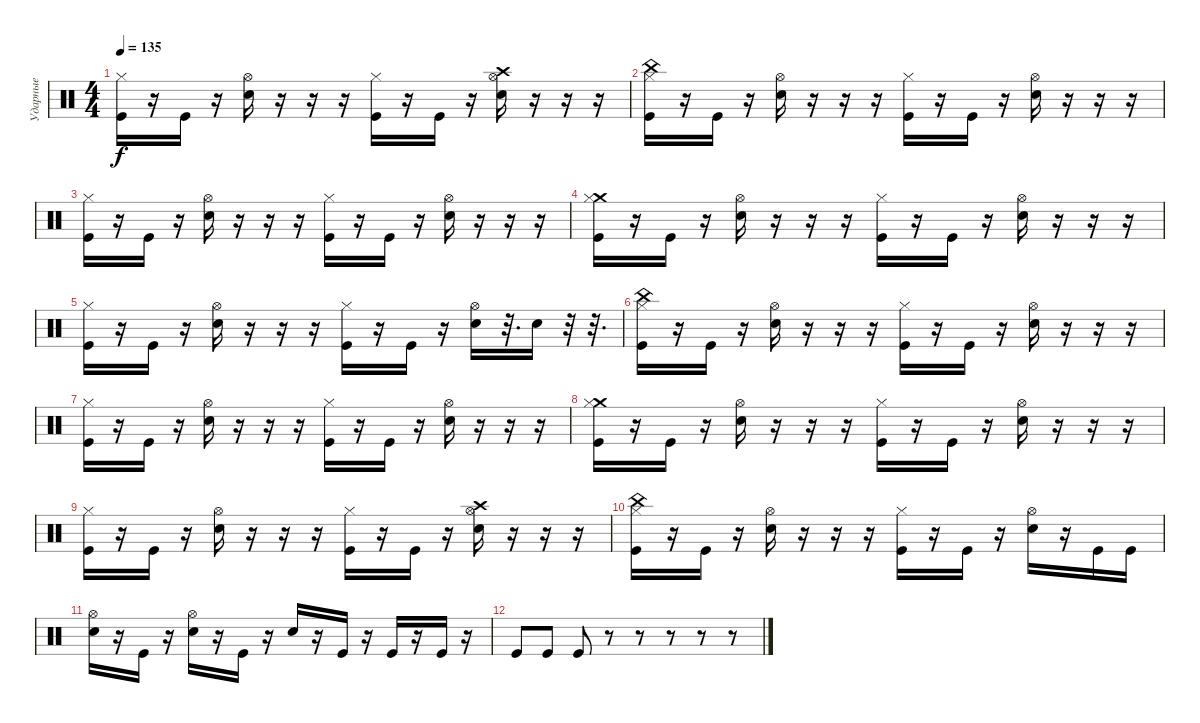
\track ("Ударные" "Ударные") {instrument percussion}
\staff {score}
\articulation defaults
\ts (4 4)
\tempo 135
\clef neutral
\ks c
("Kick (hit)" "Hi-Hat (closed)").16{dy f} r.16 "Kick (hit)".16 r.16 ("Electric Snare (hit)" "Hi-Hat (open)").16 r.16 r.16 r.16 ("Kick (hit)" "Hi-Hat (closed)").16 r.16 "Kick (hit)".16 r.16 ("Crash high (hit)" "Electric Snare (hit)" "Hi-Hat (open)").16 r.16 r.16 r.16 |
("China (hit)" "Kick (hit)" "Hi-Hat (closed)").16 r.16 "Kick (hit)".16 r.16 ("Electric Snare (hit)" "Hi-Hat (open)").16 r.16 r.16 r.16 ("Kick (hit)" "Hi-Hat (closed)").16 r.16 "Kick (hit)".16 r.16 ("Electric Snare (hit)" "Hi-Hat (open)").16 r.16 r.16 r.16 |
("Kick (hit)" "Hi-Hat (closed)").16 r.16 "Kick (hit)".16 r.16 ("Electric Snare (hit)" "Hi-Hat (open)").16 r.16 r.16 r.16 ("Kick (hit)" "Hi-Hat (closed)").16 r.16 "Kick (hit)".16 r.16 ("Electric Snare (hit)" "Hi-Hat (open)").16 r.16 r.16 r.16 |
("Crash medium (hit)" "Kick (hit)" "Hi-Hat (closed)").16 r.16 "Kick (hit)".16 r.16 ("Electric Snare (hit)" "Hi-Hat (open)").16 r.16 r.16 r.16 ("Kick (hit)" "Hi-Hat (closed)").16 r.16 "Kick (hit)".16 r.16 ("Electric Snare (hit)" "Hi-Hat (open)").16 r.16 r.16 r.16 |
("Kick (hit)" "Hi-Hat (closed)").16 r.16 "Kick (hit)".16 r.16 ("Electric Snare (hit)" "Hi-Hat (open)").16 r.16 r.16 r.16 ("Kick (hit)" "Hi-Hat (closed)").16 r.16 "Kick (hit)".16 r.16 ("Electric Snare (hit)" "Hi-Hat (open)").16 r.32{d} "Electric Snare (hit)".16 r.32 r.32{d} |
("China (hit)" "Kick (hit)" "Hi-Hat (closed)").16 r.16 "Kick (hit)".16 r.16 ("Electric Snare (hit)" "Hi-Hat (open)").16 r.16 r.16 r.16 ("Kick (hit)" "Hi-Hat (closed)").16 r.16 "Kick (hit)".16 r.16 ("Electric Snare (hit)" "Hi-Hat (open)").16 r.16 r.16 r.16 |
("Kick (hit)" "Hi-Hat (closed)").16 r.16 "Kick (hit)".16 r.16 ("Electric Snare (hit)" "Hi-Hat (open)").16 r.16 r.16 r.16 ("Kick (hit)" "Hi-Hat (closed)").16 r.16 "Kick (hit)".16 r.16 ("Electric Snare (hit)" "Hi-Hat (open)").16 r.16 r.16 r.16 |
("Crash medium (hit)" "Kick (hit)" "Hi-Hat (closed)").16 r.16 "Kick (hit)".16 r.16 ("Electric Snare (hit)" "Hi-Hat (open)").16 r.16 r.16 r.16 ("Kick (hit)" "Hi-Hat (closed)").16 r.16 "Kick (hit)".16 r.16 ("Electric Snare (hit)" "Hi-Hat (open)").16 r.16 r.16 r.16 |
("Kick (hit)" "Hi-Hat (closed)").16 r.16 "Kick (hit)".16 r.16 ("Electric Snare (hit)" "Hi-Hat (open)").16 r.16 r.16 r.16 ("Kick (hit)" "Hi-Hat (closed)").16 r.16 "Kick (hit)".16 r.16 ("Crash high (hit)" "Electric Snare (hit)" "Hi-Hat (open)").16 r.16 r.16 r.16 |
("China (hit)" "Kick (hit)" "Hi-Hat (closed)").16 r.16 "Kick (hit)".16 r.16 ("Electric Snare (hit)" "Hi-Hat (open)").16 r.16 r.16 r.16 ("Kick (hit)" "Hi-Hat (closed)").16 r.16 "Kick (hit)".16 r.16 ("Electric Snare (hit)" "Hi-Hat (open)").16 r.16 "Kick (hit)".16 "Kick (hit)".16 |
("Electric Snare (hit)" "Hi-Hat (open)").16 r.16 "Kick (hit)".16 r.16 ("Electric Snare (hit)" "Hi-Hat (open)").16 r.16 "Kick (hit)".16 r.16 "Electric Snare (hit)".16 r.16 "Kick (hit)".16 r.16 "Kick (hit)".16 r.16 "Kick (hit)".16 r.16 |
"Kick (hit)".8 "Kick (hit)".8 "Kick (hit)".8 r.8 r.8 r.8 r.8 r.8
